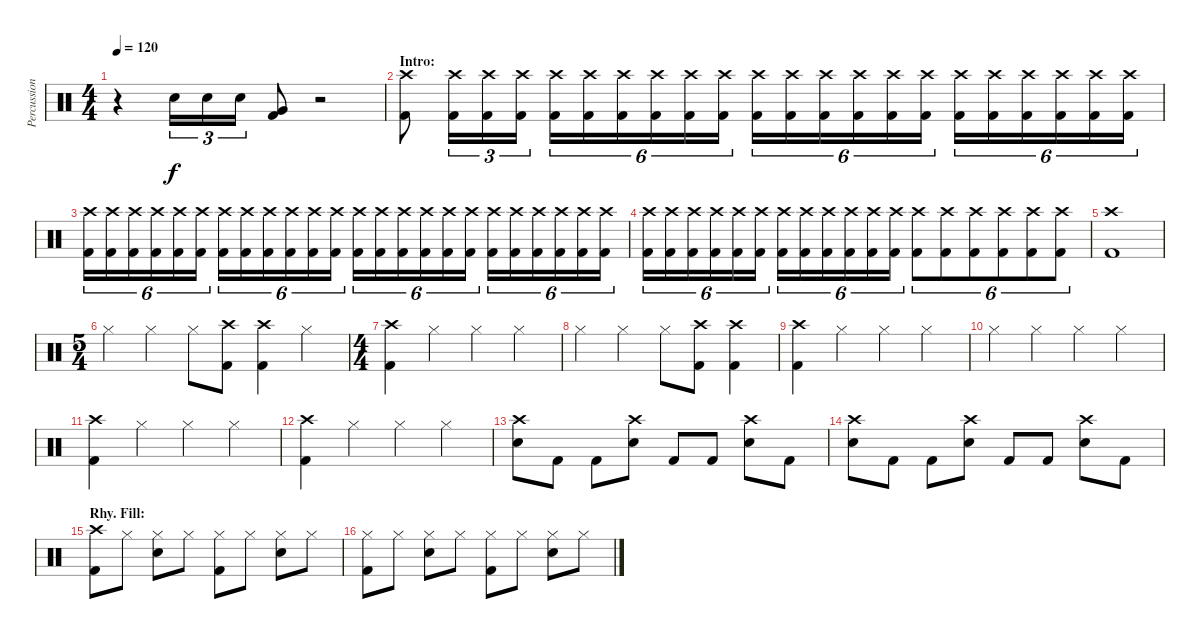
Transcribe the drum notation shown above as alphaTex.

\track ("Percussion" "Percussion") {instrument percussion}
\staff {score}
\articulation defaults
\ts (4 4)
\tempo 120
\clef neutral
\ks c
r.4{dy f} "Snare (hit) 2".16{tu (3 2)} "Snare (hit) 2".16{tu (3 2)} "Snare (hit) 2".16{tu (3 2)} ("Very Low Tom (hit)" "Kick (hit) 2").8 r.2 |
\section ("" "Intro:")
("Crash high (hit)" "Kick (hit) 2").8 ("Crash high (hit)" "Kick (hit) 2").16{tu (3 2)} ("Crash high (hit)" "Kick (hit) 2").16{tu (3 2)} ("Crash high (hit)" "Kick (hit) 2").16{tu (3 2)} ("Crash high (hit)" "Kick (hit) 2").16{tu (6 4)} ("Crash high (hit)" "Kick (hit) 2").16{tu (6 4)} ("Crash high (hit)" "Kick (hit) 2").16{tu (6 4)} ("Crash high (hit)" "Kick (hit) 2").16{tu (6 4)} ("Crash high (hit)" "Kick (hit) 2").16{tu (6 4)} ("Crash high (hit)" "Kick (hit) 2").16{tu (6 4)} ("Crash high (hit)" "Kick (hit) 2").16{tu (6 4)} ("Crash high (hit)" "Kick (hit) 2").16{tu (6 4)} ("Crash high (hit)" "Kick (hit) 2").16{tu (6 4)} ("Crash high (hit)" "Kick (hit) 2").16{tu (6 4)} ("Crash high (hit)" "Kick (hit) 2").16{tu (6 4)} ("Crash high (hit)" "Kick (hit) 2").16{tu (6 4)} ("Crash high (hit)" "Kick (hit) 2").16{tu (6 4)} ("Crash high (hit)" "Kick (hit) 2").16{tu (6 4)} ("Crash high (hit)" "Kick (hit) 2").16{tu (6 4)} ("Crash high (hit)" "Kick (hit) 2").16{tu (6 4)} ("Crash high (hit)" "Kick (hit) 2").16{tu (6 4)} ("Crash high (hit)" "Kick (hit) 2").16{tu (6 4)} |
("Crash high (hit)" "Kick (hit) 2").16{tu (6 4)} ("Crash high (hit)" "Kick (hit) 2").16{tu (6 4)} ("Crash high (hit)" "Kick (hit) 2").16{tu (6 4)} ("Crash high (hit)" "Kick (hit) 2").16{tu (6 4)} ("Crash high (hit)" "Kick (hit) 2").16{tu (6 4)} ("Crash high (hit)" "Kick (hit) 2").16{tu (6 4)} ("Crash high (hit)" "Kick (hit) 2").16{tu (6 4)} ("Crash high (hit)" "Kick (hit) 2").16{tu (6 4)} ("Crash high (hit)" "Kick (hit) 2").16{tu (6 4)} ("Crash high (hit)" "Kick (hit) 2").16{tu (6 4)} ("Crash high (hit)" "Kick (hit) 2").16{tu (6 4)} ("Crash high (hit)" "Kick (hit) 2").16{tu (6 4)} ("Crash high (hit)" "Kick (hit) 2").16{tu (6 4)} ("Crash high (hit)" "Kick (hit) 2").16{tu (6 4)} ("Crash high (hit)" "Kick (hit) 2").16{tu (6 4)} ("Crash high (hit)" "Kick (hit) 2").16{tu (6 4)} ("Crash high (hit)" "Kick (hit) 2").16{tu (6 4)} ("Crash high (hit)" "Kick (hit) 2").16{tu (6 4)} ("Crash high (hit)" "Kick (hit) 2").16{tu (6 4)} ("Crash high (hit)" "Kick (hit) 2").16{tu (6 4)} ("Crash high (hit)" "Kick (hit) 2").16{tu (6 4)} ("Crash high (hit)" "Kick (hit) 2").16{tu (6 4)} ("Crash high (hit)" "Kick (hit) 2").16{tu (6 4)} ("Crash high (hit)" "Kick (hit) 2").16{tu (6 4)} |
("Crash high (hit)" "Kick (hit) 2").16{tu (6 4)} ("Crash high (hit)" "Kick (hit) 2").16{tu (6 4)} ("Crash high (hit)" "Kick (hit) 2").16{tu (6 4)} ("Crash high (hit)" "Kick (hit) 2").16{tu (6 4)} ("Crash high (hit)" "Kick (hit) 2").16{tu (6 4)} ("Crash high (hit)" "Kick (hit) 2").16{tu (6 4)} ("Crash high (hit)" "Kick (hit) 2").16{tu (6 4)} ("Crash high (hit)" "Kick (hit) 2").16{tu (6 4)} ("Crash high (hit)" "Kick (hit) 2").16{tu (6 4)} ("Crash high (hit)" "Kick (hit) 2").16{tu (6 4)} ("Crash high (hit)" "Kick (hit) 2").16{tu (6 4)} ("Crash high (hit)" "Kick (hit) 2").16{tu (6 4)} ("Crash high (hit)" "Kick (hit) 2").8{tu (6 4)} ("Crash high (hit)" "Kick (hit) 2").8{tu (6 4)} ("Crash high (hit)" "Kick (hit) 2").8{tu (6 4)} ("Crash high (hit)" "Kick (hit) 2").8{tu (6 4)} ("Crash high (hit)" "Kick (hit) 2").8{tu (6 4)} ("Crash high (hit)" "Kick (hit) 2").8{tu (6 4)} |
("Crash high (hit)" "Kick (hit) 2").1 |
\ts (5 4)
"Hi-Hat (closed)".4 "Hi-Hat (closed)".4 "Hi-Hat (closed)".8 ("Crash high (hit)" "Kick (hit) 2").8 ("Crash high (hit)" "Kick (hit) 2").4 "Hi-Hat (closed)".4 |
\ts (4 4)
("Crash high (hit)" "Kick (hit) 2").4 "Hi-Hat (closed)".4 "Hi-Hat (closed)".4 "Hi-Hat (closed)".4 |
"Hi-Hat (closed)".4 "Hi-Hat (closed)".4 "Hi-Hat (closed)".8 ("Crash high (hit)" "Kick (hit) 2").8 ("Crash high (hit)" "Kick (hit) 2").4 |
("Crash high (hit)" "Kick (hit) 2").4 "Hi-Hat (closed)".4 "Hi-Hat (closed)".4 "Hi-Hat (closed)".4 |
"Hi-Hat (closed)".4 "Hi-Hat (closed)".4 "Hi-Hat (closed)".4 "Hi-Hat (closed)".4 |
("Crash high (hit)" "Kick (hit) 2").4 "Hi-Hat (closed)".4 "Hi-Hat (closed)".4 "Hi-Hat (closed)".4 |
("Crash high (hit)" "Kick (hit) 2").4 "Hi-Hat (closed)".4 "Hi-Hat (closed)".4 "Hi-Hat (closed)".4 |
("Crash high (hit)" "Snare (hit) 2").8 "Kick (hit) 2".8 "Kick (hit) 2".8 ("Crash high (hit)" "Snare (hit) 2").8 "Kick (hit) 2".8 "Kick (hit) 2".8 ("Crash high (hit)" "Snare (hit) 2").8 "Kick (hit) 2".8 |
("Crash high (hit)" "Snare (hit) 2").8 "Kick (hit) 2".8 "Kick (hit) 2".8 ("Crash high (hit)" "Snare (hit) 2").8 "Kick (hit) 2".8 "Kick (hit) 2".8 ("Crash high (hit)" "Snare (hit) 2").8 "Kick (hit) 2".8 |
\section ("" "Rhy. Fill:")
("Crash high (hit)" "Kick (hit) 2").8 "Hi-Hat (closed)".8 ("Hi-Hat (closed)" "Snare (hit) 2").8 "Hi-Hat (closed)".8 ("Hi-Hat (closed)" "Kick (hit) 2").8 "Hi-Hat (closed)".8 ("Hi-Hat (closed)" "Snare (hit) 2").8 "Hi-Hat (closed)".8 |
("Hi-Hat (closed)" "Kick (hit) 2").8 "Hi-Hat (closed)".8 ("Hi-Hat (closed)" "Snare (hit) 2").8 "Hi-Hat (closed)".8 ("Hi-Hat (closed)" "Kick (hit) 2").8 "Hi-Hat (closed)".8 ("Hi-Hat (closed)" "Snare (hit) 2").8 "Hi-Hat (closed)".8
